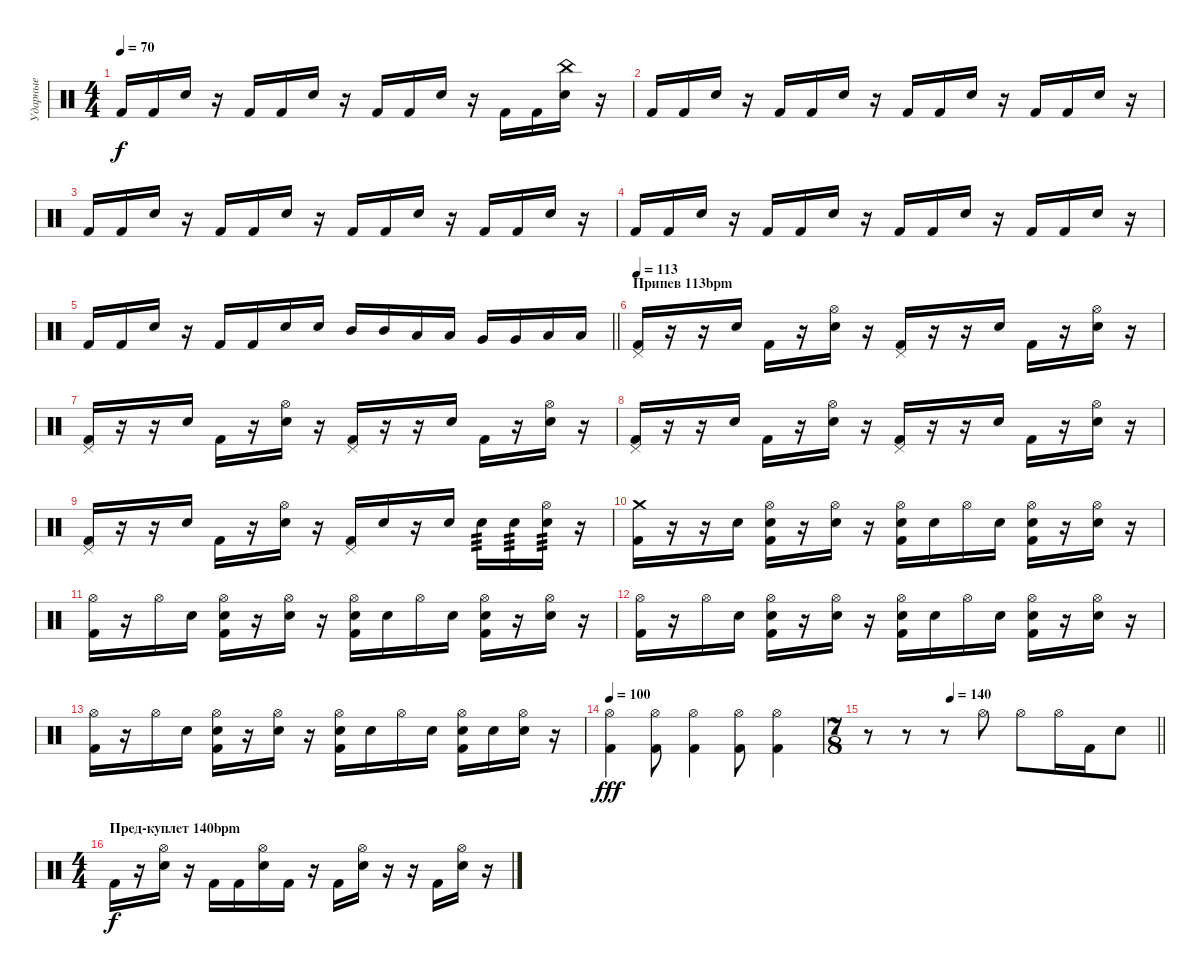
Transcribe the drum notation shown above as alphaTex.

\track ("Ударные" "Ударные") {instrument percussion}
\staff {score}
\articulation defaults
\ts (4 4)
\tempo 70
\clef neutral
\ks c "Kick (hit) 2".16{dy f} "Kick (hit) 2".16 "Electric Snare (hit)".16
r.16 "Kick (hit) 2".16 "Kick (hit) 2".16 "Electric Snare (hit)".16 r.16 "Kick (hit) 2".16 "Kick (hit) 2".16 "Electric Snare (hit)".16 r.16 "Kick (hit) 2".16 "Kick (hit) 2".16 ("Electric Snare (hit)" "China (hit)").16 r.16 |
"Kick (hit) 2".16 "Kick (hit) 2".16 "Electric Snare (hit)".16 r.16 "Kick (hit) 2".16 "Kick (hit) 2".16 "Electric Snare (hit)".16 r.16 "Kick (hit) 2".16 "Kick (hit) 2".16 "Electric Snare (hit)".16 r.16 "Kick (hit) 2".16 "Kick (hit) 2".16 "Electric Snare (hit)".16 r.16 |
"Kick (hit) 2".16 "Kick (hit) 2".16 "Electric Snare (hit)".16 r.16 "Kick (hit) 2".16 "Kick (hit) 2".16 "Electric Snare (hit)".16 r.16 "Kick (hit) 2".16 "Kick (hit) 2".16 "Electric Snare (hit)".16 r.16 "Kick (hit) 2".16 "Kick (hit) 2".16 "Electric Snare (hit)".16 r.16 |
"Kick (hit) 2".16 "Kick (hit) 2".16 "Electric Snare (hit)".16 r.16 "Kick (hit) 2".16 "Kick (hit) 2".16 "Electric Snare (hit)".16 r.16 "Kick (hit) 2".16 "Kick (hit) 2".16 "Electric Snare (hit)".16 r.16 "Kick (hit) 2".16 "Kick (hit) 2".16 "Electric Snare (hit)".16 r.16 |
\barLineRight lightlight "Kick (hit) 2".16 "Kick (hit) 2".16 "Electric Snare (hit)".16
r.16 "Kick (hit) 2".16 "Kick (hit) 2".16 "Electric Snare (hit)".16 "Electric Snare (hit)".16 "Mid Tom (hit)".16 "Mid Tom (hit)".16 "Low Tom (hit)".16 "Low Tom (hit)".16 "Very Low Tom (hit)".16 "Very Low Tom (hit)".16 "Low Floor Tom (hit)".16 "Low Floor Tom (hit)".16 |
\section ("" "Припев 113bpm")
\tempo 113
("Kick (hit) 2" "Pedal Hi-Hat (hit)").16 r.16 r.16 "Electric Snare (hit)".16 "Kick (hit) 2".16 r.16 ("Electric Snare (hit)" "Hi-Hat (open)").16 r.16 ("Kick (hit) 2" "Pedal Hi-Hat (hit)").16 r.16 r.16 "Electric Snare (hit)".16 "Kick (hit) 2".16 r.16 ("Electric Snare (hit)" "Hi-Hat (open)").16 r.16 |
("Kick (hit) 2" "Pedal Hi-Hat (hit)").16 r.16 r.16 "Electric Snare (hit)".16 "Kick (hit) 2".16 r.16 ("Electric Snare (hit)" "Hi-Hat (open)").16 r.16 ("Kick (hit) 2" "Pedal Hi-Hat (hit)").16 r.16 r.16 "Electric Snare (hit)".16 "Kick (hit) 2".16 r.16 ("Electric Snare (hit)" "Hi-Hat (open)").16 r.16 |
("Kick (hit) 2" "Pedal Hi-Hat (hit)").16 r.16 r.16 "Electric Snare (hit)".16 "Kick (hit) 2".16 r.16 ("Electric Snare (hit)" "Hi-Hat (open)").16 r.16 ("Kick (hit) 2" "Pedal Hi-Hat (hit)").16 r.16 r.16 "Electric Snare (hit)".16 "Kick (hit) 2".16 r.16 ("Electric Snare (hit)" "Hi-Hat (open)").16 r.16 |
("Kick (hit) 2" "Pedal Hi-Hat (hit)").16 r.16 r.16 "Electric Snare (hit)".16 "Kick (hit) 2".16 r.16 ("Electric Snare (hit)" "Hi-Hat (open)").16 r.16 ("Kick (hit) 2" "Pedal Hi-Hat (hit)").16 "Electric Snare (hit)".16 r.16 "Electric Snare (hit)".16 "Electric Snare (hit)".16{tp 3} "Electric Snare (hit)".16{tp 3} ("Electric Snare (hit)" "Hi-Hat (open)").16{tp 3} r.16 |
("Kick (hit) 2" "Crash medium (hit)").16 r.16 r.16 "Electric Snare (hit)".16 ("Electric Snare (hit)" "Kick (hit) 2" "Hi-Hat (open)").16 r.16 ("Electric Snare (hit)" "Hi-Hat (open)").16 r.16 ("Electric Snare (hit)" "Kick (hit) 2" "Hi-Hat (open)").16 "Electric Snare (hit)".16 "Hi-Hat (open)".16 "Electric Snare (hit)".16 ("Electric Snare (hit)" "Kick (hit) 2" "Hi-Hat (open)").16 r.16 ("Electric Snare (hit)" "Hi-Hat (open)").16 r.16 |
("Kick (hit) 2" "Hi-Hat (open)").16 r.16 "Hi-Hat (open)".16 "Electric Snare (hit)".16 ("Electric Snare (hit)" "Kick (hit) 2" "Hi-Hat (open)").16 r.16 ("Electric Snare (hit)" "Hi-Hat (open)").16 r.16 ("Electric Snare (hit)" "Kick (hit) 2" "Hi-Hat (open)").16 "Electric Snare (hit)".16 "Hi-Hat (open)".16 "Electric Snare (hit)".16 ("Electric Snare (hit)" "Kick (hit) 2" "Hi-Hat (open)").16 r.16 ("Electric Snare (hit)" "Hi-Hat (open)").16 r.16 |
("Kick (hit) 2" "Hi-Hat (open)").16 r.16 "Hi-Hat (open)".16 "Electric Snare (hit)".16 ("Electric Snare (hit)" "Kick (hit) 2" "Hi-Hat (open)").16 r.16 ("Electric Snare (hit)" "Hi-Hat (open)").16 r.16 ("Electric Snare (hit)" "Kick (hit) 2" "Hi-Hat (open)").16 "Electric Snare (hit)".16 "Hi-Hat (open)".16 "Electric Snare (hit)".16 ("Electric Snare (hit)" "Kick (hit) 2" "Hi-Hat (open)").16 r.16 ("Electric Snare (hit)" "Hi-Hat (open)").16 r.16 |
("Kick (hit) 2" "Hi-Hat (open)").16 r.16 "Hi-Hat (open)".16 "Electric Snare (hit)".16 ("Electric Snare (hit)" "Kick (hit) 2" "Hi-Hat (open)").16 r.16 ("Electric Snare (hit)" "Hi-Hat (open)").16 r.16 ("Electric Snare (hit)" "Kick (hit) 2" "Hi-Hat (open)").16 "Electric Snare (hit)".16 "Hi-Hat (open)".16 "Electric Snare (hit)".16 ("Electric Snare (hit)" "Kick (hit) 2" "Hi-Hat (open)").16 "Electric Snare (hit)".16 ("Electric Snare (hit)" "Hi-Hat (open)").16 r.16 |
\tempo 100
("Kick (hit) 2" "Hi-Hat (open)").4{dy fff} ("Kick (hit) 2" "Hi-Hat (open)").8 ("Kick (hit) 2" "Hi-Hat (open)").4 ("Kick (hit) 2" "Hi-Hat (open)").8 ("Kick (hit) 2" "Hi-Hat (open)").4 |
\ts (7 8)
\tempo (140 0.2857142857142857)
\barLineRight lightlight
r.8 r.8 r.8 "Hi-Hat (open)".8 "Hi-Hat (open)".8 "Hi-Hat (open)".16 "Kick (hit) 2".16 "Electric Snare (hit)".8 |
\ts (4 4)
\section ("" "Пред-куплет 140bpm")
"Kick (hit) 2".16{dy f} r.16 ("Electric Snare (hit)" "Hi-Hat (open)").16 r.16 "Kick (hit) 2".16 "Kick (hit) 2".16 ("Electric Snare (hit)" "Hi-Hat (open)").16 "Kick (hit) 2".16 r.16 "Kick (hit) 2".16 ("Electric Snare (hit)" "Hi-Hat (open)").16 r.16 r.16 "Kick (hit) 2".16 ("Electric Snare (hit)" "Hi-Hat (open)").16 r.16
